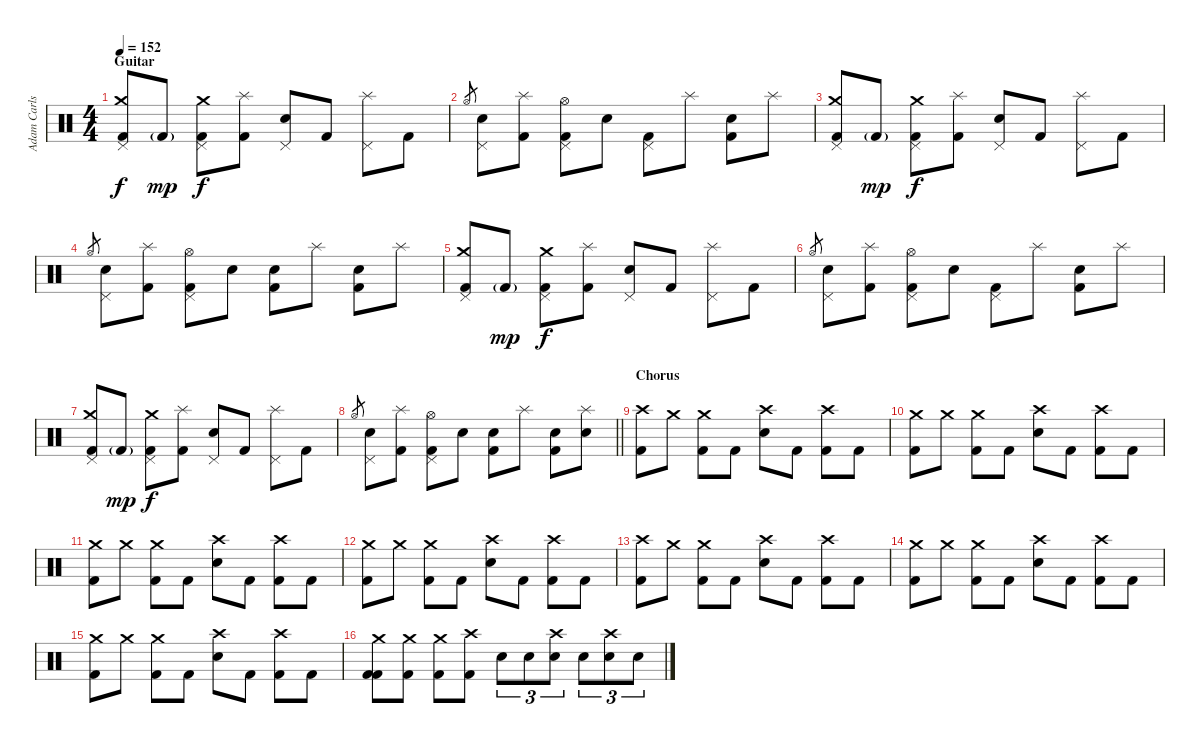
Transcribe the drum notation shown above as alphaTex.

\track ("Adam Carlson" "Adam Carls") {instrument percussion}
\staff {score}
\articulation defaults
\ts (4 4)
\section ("" "Guitar")
\tempo 152
\clef neutral
\ks c
("Pedal Hi-Hat (hit)" "Crash medium (hit)" "Kick (hit) 2").8{dy f} "Kick (hit) 2"{g}.8{dy mp} ("Pedal Hi-Hat (hit)" "Crash medium (hit)" "Kick (hit) 2").8{dy f} ("Splash (hit)" "Kick (hit) 2").8 ("Pedal Hi-Hat (hit)" "Electric Snare (hit)").8 "Kick (hit) 2".8 ("Pedal Hi-Hat (hit)" "Splash (hit)").8 "Kick (hit) 2".8 |
"Hi-Hat (open)".8{gr} ("Pedal Hi-Hat (hit)" "Electric Snare (hit)").8 ("Splash (hit)" "Kick (hit) 2").8 ("Pedal Hi-Hat (hit)" "Hi-Hat (open)" "Kick (hit) 2").8 "Electric Snare (hit)".8 ("Pedal Hi-Hat (hit)" "Kick (hit) 2").8 "Splash (hit)".8 ("Electric Snare (hit)" "Kick (hit) 2").8 "Splash (hit)".8 |
("Pedal Hi-Hat (hit)" "Crash medium (hit)" "Kick (hit) 2").8 "Kick (hit) 2"{g}.8{dy mp} ("Pedal Hi-Hat (hit)" "Crash medium (hit)" "Kick (hit) 2").8{dy f} ("Splash (hit)" "Kick (hit) 2").8 ("Pedal Hi-Hat (hit)" "Electric Snare (hit)").8 "Kick (hit) 2".8 ("Pedal Hi-Hat (hit)" "Splash (hit)").8 "Kick (hit) 2".8 |
"Hi-Hat (open)".8{gr} ("Pedal Hi-Hat (hit)" "Electric Snare (hit)").8 ("Splash (hit)" "Kick (hit) 2").8 ("Pedal Hi-Hat (hit)" "Hi-Hat (open)" "Kick (hit) 2").8 "Electric Snare (hit)".8 ("Electric Snare (hit)" "Kick (hit) 2").8 "Splash (hit)".8 ("Electric Snare (hit)" "Kick (hit) 2").8 "Splash (hit)".8 |
("Pedal Hi-Hat (hit)" "Crash medium (hit)" "Kick (hit) 2").8 "Kick (hit) 2"{g}.8{dy mp} ("Pedal Hi-Hat (hit)" "Crash medium (hit)" "Kick (hit) 2").8{dy f} ("Splash (hit)" "Kick (hit) 2").8 ("Pedal Hi-Hat (hit)" "Electric Snare (hit)").8 "Kick (hit) 2".8 ("Pedal Hi-Hat (hit)" "Splash (hit)").8 "Kick (hit) 2".8 |
"Hi-Hat (open)".8{gr} ("Pedal Hi-Hat (hit)" "Electric Snare (hit)").8 ("Splash (hit)" "Kick (hit) 2").8 ("Pedal Hi-Hat (hit)" "Hi-Hat (open)" "Kick (hit) 2").8 "Electric Snare (hit)".8 ("Pedal Hi-Hat (hit)" "Kick (hit) 2").8 "Splash (hit)".8 ("Electric Snare (hit)" "Kick (hit) 2").8 "Splash (hit)".8 |
("Pedal Hi-Hat (hit)" "Crash medium (hit)" "Kick (hit) 2").8 "Kick (hit) 2"{g}.8{dy mp} ("Pedal Hi-Hat (hit)" "Crash medium (hit)" "Kick (hit) 2").8{dy f} ("Splash (hit)" "Kick (hit) 2").8 ("Pedal Hi-Hat (hit)" "Electric Snare (hit)").8 "Kick (hit) 2".8 ("Pedal Hi-Hat (hit)" "Splash (hit)").8 "Kick (hit) 2".8 |
\barLineRight lightlight "Hi-Hat (open)".8{gr}
("Pedal Hi-Hat (hit)" "Electric Snare (hit)").8 ("Splash (hit)" "Kick (hit) 2").8 ("Pedal Hi-Hat (hit)" "Hi-Hat (open)" "Kick (hit) 2").8 "Electric Snare (hit)".8 ("Electric Snare (hit)" "Kick (hit) 2").8 "Splash (hit)".8 ("Electric Snare (hit)" "Kick (hit) 2").8 ("Electric Snare (hit)" "Splash (hit)").8 |
\section ("" "Chorus")
("Crash high (hit)" "Kick (hit) 2").8 "Crash medium (hit)".8 ("Crash medium (hit)" "Kick (hit) 2").8 "Kick (hit) 2".8 ("Electric Snare (hit)" "Crash high (hit)").8 "Kick (hit) 2".8 ("Kick (hit) 2" "Crash high (hit)").8 "Kick (hit) 2".8 |
("Crash medium (hit)" "Kick (hit) 2").8 "Crash medium (hit)".8 ("Crash medium (hit)" "Kick (hit) 2").8 "Kick (hit) 2".8 ("Electric Snare (hit)" "Crash high (hit)").8 "Kick (hit) 2".8 ("Kick (hit) 2" "Crash high (hit)").8 "Kick (hit) 2".8 |
("Crash medium (hit)" "Kick (hit) 2").8 "Crash medium (hit)".8 ("Crash medium (hit)" "Kick (hit) 2").8 "Kick (hit) 2".8 ("Electric Snare (hit)" "Crash high (hit)").8 "Kick (hit) 2".8 ("Kick (hit) 2" "Crash high (hit)").8 "Kick (hit) 2".8 |
("Crash medium (hit)" "Kick (hit) 2").8 "Crash medium (hit)".8 ("Crash medium (hit)" "Kick (hit) 2").8 "Kick (hit) 2".8 ("Electric Snare (hit)" "Crash high (hit)").8 "Kick (hit) 2".8 ("Kick (hit) 2" "Crash high (hit)").8 "Kick (hit) 2".8 |
("Crash high (hit)" "Kick (hit) 2").8 "Crash medium (hit)".8 ("Crash medium (hit)" "Kick (hit) 2").8 "Kick (hit) 2".8 ("Electric Snare (hit)" "Crash high (hit)").8 "Kick (hit) 2".8 ("Kick (hit) 2" "Crash high (hit)").8 "Kick (hit) 2".8 |
("Crash medium (hit)" "Kick (hit) 2").8 "Crash medium (hit)".8 ("Crash medium (hit)" "Kick (hit) 2").8 "Kick (hit) 2".8 ("Electric Snare (hit)" "Crash high (hit)").8 "Kick (hit) 2".8 ("Kick (hit) 2" "Crash high (hit)").8 "Kick (hit) 2".8 |
("Crash medium (hit)" "Kick (hit) 2").8 "Crash medium (hit)".8 ("Crash medium (hit)" "Kick (hit) 2").8 "Kick (hit) 2".8 ("Electric Snare (hit)" "Crash high (hit)").8 "Kick (hit) 2".8 ("Kick (hit) 2" "Crash high (hit)").8 "Kick (hit) 2".8 |
("Crash medium (hit)" "Kick (hit) 2" "Kick (hit) 2").8 ("Crash medium (hit)" "Kick (hit) 2").8 ("Crash medium (hit)" "Kick (hit) 2").8 ("Crash high (hit)" "Kick (hit) 2").8 "Electric Snare (hit)".8{tu (3 2)} "Electric Snare (hit)".8{tu (3 2)} ("Electric Snare (hit)" "Crash high (hit)").8{tu (3 2)} "Electric Snare (hit)".8{tu (3 2)} ("Electric Snare (hit)" "Crash high (hit)").8{tu (3 2)} "Electric Snare (hit)".8{tu (3 2)}
